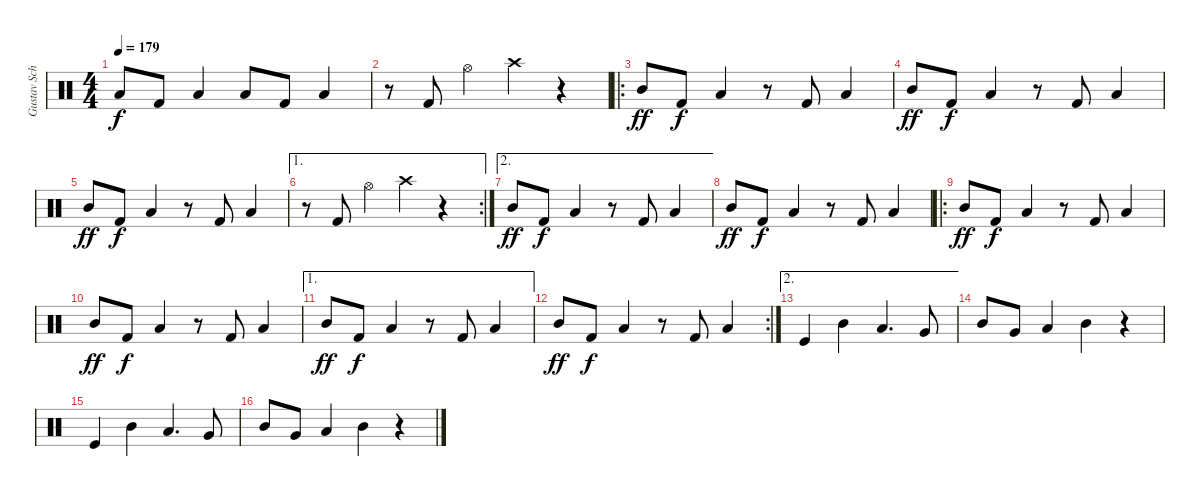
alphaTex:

\track ("Gustav Schäfer" "Gustav Sch") {instrument percussion}
\staff {score}
\articulation defaults
\ts (4 4)
\tempo 179
\clef neutral
\ks c "Low Tom (hit)".8{dy f} "Kick (hit) 2".8 "Low Tom (hit)".4 "Low Floor Tom (hit)".8 "Kick (hit) 2".8 "Low Tom (hit)".4
|
r.8 "Kick (hit) 2".8 "Hi-Hat (open)".4 "Crash high (hit)".4 r.4 |
\ro "Mid Tom (hit)".8{dy ff} "Kick (hit) 2".8{dy f} "Low Tom (hit)".4
r.8 "Kick (hit) 2".8 "Low Tom (hit)".4 |
"Mid Tom (hit)".8{dy ff} "Kick (hit) 2".8{dy f} "Low Tom (hit)".4 r.8 "Kick (hit) 2".8 "Low Tom (hit)".4 |
"Mid Tom (hit)".8{dy ff} "Kick (hit) 2".8{dy f} "Low Tom (hit)".4 r.8 "Kick (hit) 2".8 "Low Tom (hit)".4 |
\ae 1
\rc 2
r.8 "Kick (hit) 2".8 "Hi-Hat (open)".4 "Crash high (hit)".4 r.4 |
\ae 2 "Mid Tom (hit)".8{dy ff} "Kick (hit) 2".8{dy f} "Low Tom (hit)".4
r.8 "Kick (hit) 2".8 "Low Tom (hit)".4 |
"Mid Tom (hit)".8{dy ff} "Kick (hit) 2".8{dy f} "Low Tom (hit)".4 r.8 "Kick (hit) 2".8 "Low Tom (hit)".4 |
\ro "Mid Tom (hit)".8{dy ff} "Kick (hit) 2".8{dy f} "Low Tom (hit)".4
r.8 "Kick (hit) 2".8 "Low Tom (hit)".4 |
"Mid Tom (hit)".8{dy ff} "Kick (hit) 2".8{dy f} "Low Tom (hit)".4 r.8 "Kick (hit) 2".8 "Low Tom (hit)".4 |
\ae 1 "Mid Tom (hit)".8{dy ff} "Kick (hit) 2".8{dy f} "Low Tom (hit)".4
r.8 "Kick (hit) 2".8 "Low Tom (hit)".4 |
\rc 2 "Mid Tom (hit)".8{dy ff} "Kick (hit) 2".8{dy f} "Low Tom (hit)".4
r.8 "Kick (hit) 2".8 "Low Tom (hit)".4 |
\ae 2 "Kick (hit)".4 "Mid Tom (hit)".4 "Low Tom (hit)".4{d} "Very Low Tom (hit)".8
|
"Mid Tom (hit)".8 "Very Low Tom (hit)".8 "Low Tom (hit)".4 "Mid Tom (hit)".4 r.4 |
"Kick (hit)".4 "Mid Tom (hit)".4 "Low Tom (hit)".4{d} "Very Low Tom (hit)".8 |
"Mid Tom (hit)".8 "Very Low Tom (hit)".8 "Low Tom (hit)".4 "Mid Tom (hit)".4 r.4
